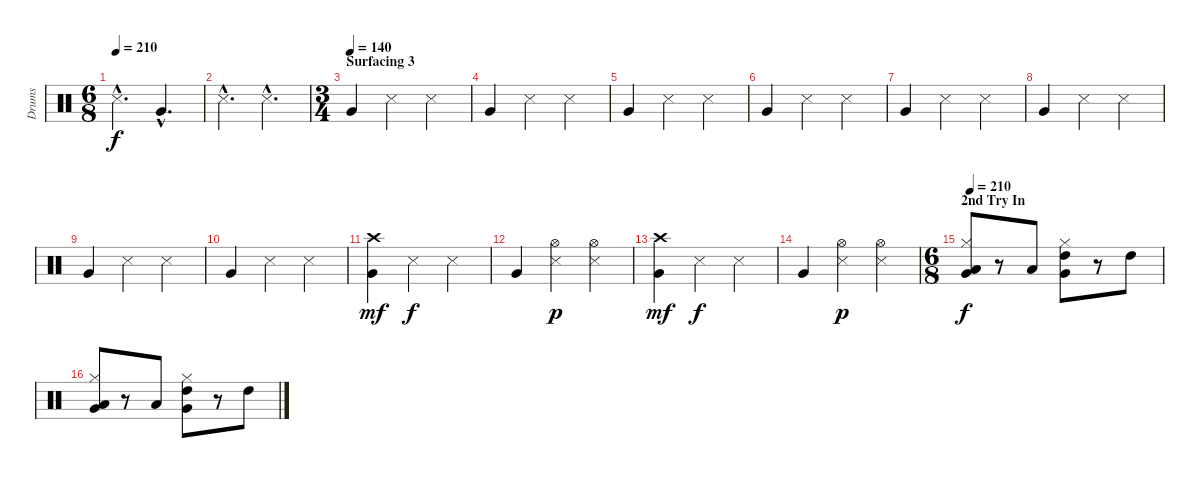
\track ("Drums" "Drums") {instrument percussion}
\staff {score}
\articulation defaults
\ts (6 8)
\tempo 210
\clef neutral
\ks c "Snare (side stick) 3"{hac}.4{d dy f} "Very Low Tom (hit)"{hac}.4{d}
|
"Snare (side stick) 3"{hac}.4{d} "Snare (side stick) 3"{hac}.4{d} |
\ts (3 4)
\section ("" "Surfacing 3")
\tempo (140)
"Very Low Tom (hit)".4 "Snare (side stick) 3".4 "Snare (side stick) 3".4 |
"Very Low Tom (hit)".4 "Snare (side stick) 3".4 "Snare (side stick) 3".4 |
"Very Low Tom (hit)".4 "Snare (side stick) 3".4 "Snare (side stick) 3".4 |
"Very Low Tom (hit)".4 "Snare (side stick) 3".4 "Snare (side stick) 3".4 |
"Very Low Tom (hit)".4 "Snare (side stick) 3".4 "Snare (side stick) 3".4 |
"Very Low Tom (hit)".4 "Snare (side stick) 3".4 "Snare (side stick) 3".4 |
"Very Low Tom (hit)".4 "Snare (side stick) 3".4 "Snare (side stick) 3".4 |
"Very Low Tom (hit)".4 "Snare (side stick) 3".4 "Snare (side stick) 3".4 |
("Crash high (hit)" "Very Low Tom (hit)").4{dy mf} "Snare (side stick) 3".4{dy f} "Snare (side stick) 3".4 |
"Very Low Tom (hit)".4 ("Hi-Hat (open)" "Snare (side stick) 3").4{dy p} ("Hi-Hat (open)" "Snare (side stick) 3").4 |
("Crash high (hit)" "Very Low Tom (hit)").4{dy mf} "Snare (side stick) 3".4{dy f} "Snare (side stick) 3".4 |
"Very Low Tom (hit)".4 ("Hi-Hat (open)" "Snare (side stick) 3").4{dy p} ("Hi-Hat (open)" "Snare (side stick) 3").4 |
\ts (6 8)
\section ("" "2nd Try In")
\tempo 210
("Hi-Hat (closed)" "Low Tom (hit)" "Very Low Tom (hit)").8{dy f} r.8 "Low Tom (hit)".8 ("Hi-Hat (closed)" "High Tom (hit)" "Very Low Tom (hit)").8 r.8 "High Tom (hit)".8 |
("Hi-Hat (closed)" "Low Tom (hit)" "Very Low Tom (hit)").8 r.8 "Low Tom (hit)".8 ("Hi-Hat (closed)" "High Tom (hit)" "Very Low Tom (hit)").8 r.8 "High Tom (hit)".8
